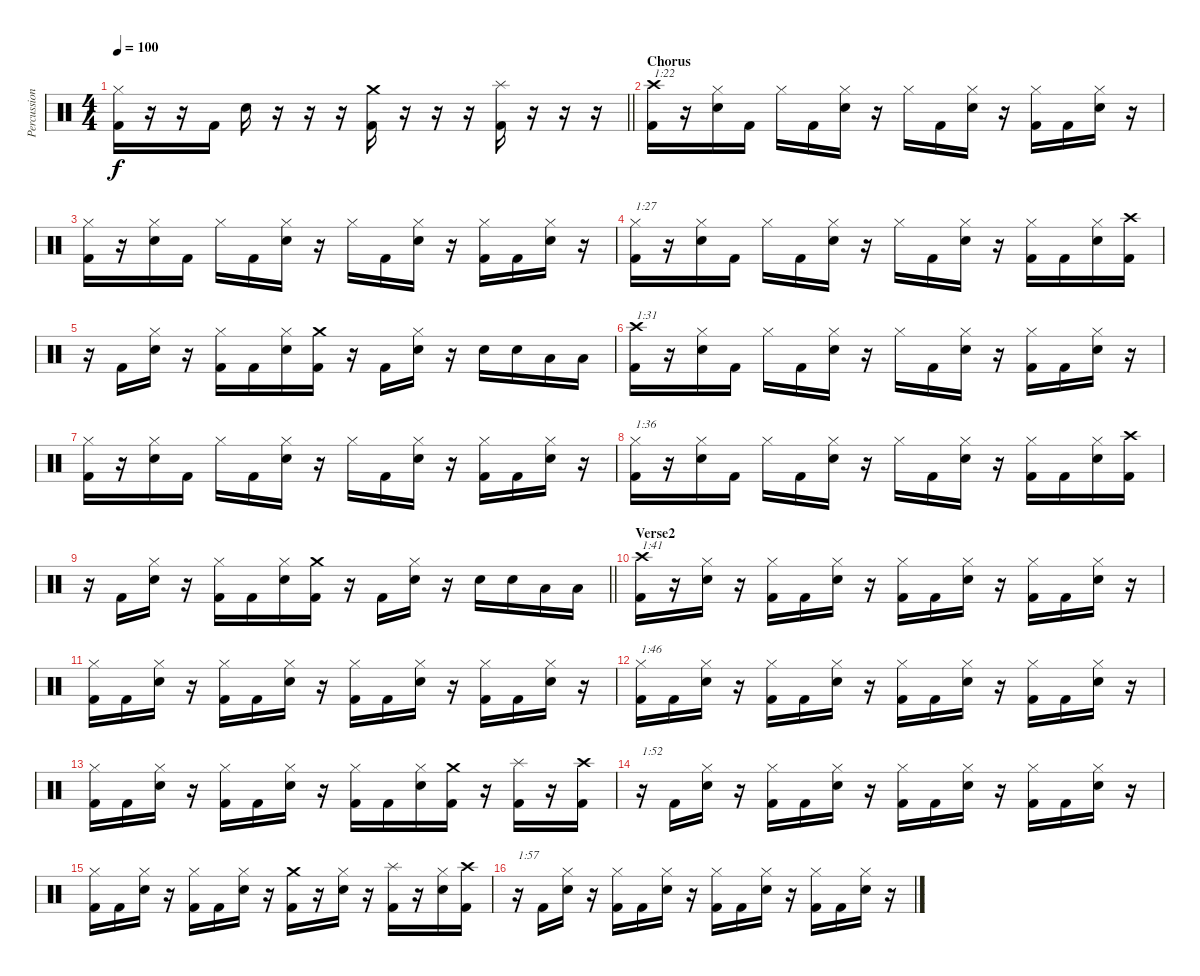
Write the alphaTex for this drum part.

\track ("Percussion" "Percussion") {instrument percussion}
\staff {score}
\articulation defaults
\ts (4 4)
\tempo 100
\clef neutral
\barLineRight lightlight
\ks c
("Hi-Hat (closed)" "Kick (hit) 2").16{dy f} r.16 r.16 "Kick (hit) 2".16 "Electric Snare (hit)".16 r.16 r.16 r.16 ("Crash medium (hit)" "Kick (hit) 2").16 r.16 r.16 r.16 ("Splash (hit)" "Kick (hit) 2").16 r.16 r.16 r.16 |
\section ("" "Chorus")
("Crash high (hit)" "Kick (hit) 2").16{txt "1:22"} r.16 ("Hi-Hat (closed)" "Electric Snare (hit)").16 "Kick (hit) 2".16 "Hi-Hat (closed)".16 "Kick (hit) 2".16 ("Hi-Hat (closed)" "Electric Snare (hit)").16 r.16 "Hi-Hat (closed)".16 "Kick (hit) 2".16 ("Hi-Hat (closed)" "Electric Snare (hit)").16 r.16 ("Hi-Hat (closed)" "Kick (hit) 2").16 "Kick (hit) 2".16 ("Hi-Hat (closed)" "Electric Snare (hit)").16 r.16 |
("Hi-Hat (closed)" "Kick (hit) 2").16 r.16 ("Hi-Hat (closed)" "Electric Snare (hit)").16 "Kick (hit) 2".16 "Hi-Hat (closed)".16 "Kick (hit) 2".16 ("Hi-Hat (closed)" "Electric Snare (hit)").16 r.16 "Hi-Hat (closed)".16 "Kick (hit) 2".16 ("Hi-Hat (closed)" "Electric Snare (hit)").16 r.16 ("Hi-Hat (closed)" "Kick (hit) 2").16 "Kick (hit) 2".16 ("Hi-Hat (closed)" "Electric Snare (hit)").16 r.16 |
("Hi-Hat (closed)" "Kick (hit) 2").16{txt "1:27"} r.16 ("Hi-Hat (closed)" "Electric Snare (hit)").16 "Kick (hit) 2".16 "Hi-Hat (closed)".16 "Kick (hit) 2".16 ("Hi-Hat (closed)" "Electric Snare (hit)").16 r.16 "Hi-Hat (closed)".16 "Kick (hit) 2".16 ("Hi-Hat (closed)" "Electric Snare (hit)").16 r.16 ("Hi-Hat (closed)" "Kick (hit) 2").16 "Kick (hit) 2".16 ("Hi-Hat (closed)" "Electric Snare (hit)").16 ("Crash high (hit)" "Kick (hit) 2").16 |
r.16 "Kick (hit) 2".16 ("Hi-Hat (closed)" "Electric Snare (hit)").16 r.16 ("Hi-Hat (closed)" "Kick (hit) 2").16 "Kick (hit) 2".16 ("Hi-Hat (closed)" "Electric Snare (hit)").16 ("Crash medium (hit)" "Kick (hit) 2").16 r.16 "Kick (hit) 2".16 ("Hi-Hat (closed)" "Electric Snare (hit)").16 r.16 "Electric Snare (hit)".16 "Electric Snare (hit)".16 "Low Tom (hit)".16 "Low Tom (hit)".16 |
("Crash high (hit)" "Kick (hit) 2").16{txt "1:31"} r.16 ("Hi-Hat (closed)" "Electric Snare (hit)").16 "Kick (hit) 2".16 "Hi-Hat (closed)".16 "Kick (hit) 2".16 ("Hi-Hat (closed)" "Electric Snare (hit)").16 r.16 "Hi-Hat (closed)".16 "Kick (hit) 2".16 ("Hi-Hat (closed)" "Electric Snare (hit)").16 r.16 ("Hi-Hat (closed)" "Kick (hit) 2").16 "Kick (hit) 2".16 ("Hi-Hat (closed)" "Electric Snare (hit)").16 r.16 |
("Hi-Hat (closed)" "Kick (hit) 2").16 r.16 ("Hi-Hat (closed)" "Electric Snare (hit)").16 "Kick (hit) 2".16 "Hi-Hat (closed)".16 "Kick (hit) 2".16 ("Hi-Hat (closed)" "Electric Snare (hit)").16 r.16 "Hi-Hat (closed)".16 "Kick (hit) 2".16 ("Hi-Hat (closed)" "Electric Snare (hit)").16 r.16 ("Hi-Hat (closed)" "Kick (hit) 2").16 "Kick (hit) 2".16 ("Hi-Hat (closed)" "Electric Snare (hit)").16 r.16 |
("Hi-Hat (closed)" "Kick (hit) 2").16{txt "1:36"} r.16 ("Hi-Hat (closed)" "Electric Snare (hit)").16 "Kick (hit) 2".16 "Hi-Hat (closed)".16 "Kick (hit) 2".16 ("Hi-Hat (closed)" "Electric Snare (hit)").16 r.16 "Hi-Hat (closed)".16 "Kick (hit) 2".16 ("Hi-Hat (closed)" "Electric Snare (hit)").16 r.16 ("Hi-Hat (closed)" "Kick (hit) 2").16 "Kick (hit) 2".16 ("Hi-Hat (closed)" "Electric Snare (hit)").16 ("Crash high (hit)" "Kick (hit) 2").16 |
\barLineRight lightlight
r.16 "Kick (hit) 2".16 ("Hi-Hat (closed)" "Electric Snare (hit)").16 r.16 ("Hi-Hat (closed)" "Kick (hit) 2").16 "Kick (hit) 2".16 ("Hi-Hat (closed)" "Electric Snare (hit)").16 ("Crash medium (hit)" "Kick (hit) 2").16 r.16 "Kick (hit) 2".16 ("Hi-Hat (closed)" "Electric Snare (hit)").16 r.16 "Electric Snare (hit)".16 "Electric Snare (hit)".16 "Low Tom (hit)".16 "Low Tom (hit)".16 |
\section ("" "Verse2")
("Crash high (hit)" "Kick (hit) 2").16{txt "1:41"} r.16 ("Hi-Hat (closed)" "Electric Snare (hit)").16 r.16 ("Hi-Hat (closed)" "Kick (hit) 2").16 "Kick (hit) 2".16 ("Hi-Hat (closed)" "Electric Snare (hit)").16 r.16 ("Hi-Hat (closed)" "Kick (hit) 2").16 "Kick (hit) 2".16 ("Hi-Hat (closed)" "Electric Snare (hit)").16 r.16 ("Hi-Hat (closed)" "Kick (hit) 2").16 "Kick (hit) 2".16 ("Hi-Hat (closed)" "Electric Snare (hit)").16 r.16 |
("Hi-Hat (closed)" "Kick (hit) 2").16 "Kick (hit) 2".16 ("Hi-Hat (closed)" "Electric Snare (hit)").16 r.16 ("Hi-Hat (closed)" "Kick (hit) 2").16 "Kick (hit) 2".16 ("Hi-Hat (closed)" "Electric Snare (hit)").16 r.16 ("Hi-Hat (closed)" "Kick (hit) 2").16 "Kick (hit) 2".16 ("Hi-Hat (closed)" "Electric Snare (hit)").16 r.16 ("Hi-Hat (closed)" "Kick (hit) 2").16 "Kick (hit) 2".16 ("Hi-Hat (closed)" "Electric Snare (hit)").16 r.16 |
("Hi-Hat (closed)" "Kick (hit) 2").16{txt "1:46"} "Kick (hit) 2".16 ("Hi-Hat (closed)" "Electric Snare (hit)").16 r.16 ("Hi-Hat (closed)" "Kick (hit) 2").16 "Kick (hit) 2".16 ("Hi-Hat (closed)" "Electric Snare (hit)").16 r.16 ("Hi-Hat (closed)" "Kick (hit) 2").16 "Kick (hit) 2".16 ("Hi-Hat (closed)" "Electric Snare (hit)").16 r.16 ("Hi-Hat (closed)" "Kick (hit) 2").16 "Kick (hit) 2".16 ("Hi-Hat (closed)" "Electric Snare (hit)").16 r.16 |
("Hi-Hat (closed)" "Kick (hit) 2").16 "Kick (hit) 2".16 ("Hi-Hat (closed)" "Electric Snare (hit)").16 r.16 ("Hi-Hat (closed)" "Kick (hit) 2").16 "Kick (hit) 2".16 ("Hi-Hat (closed)" "Electric Snare (hit)").16 r.16 ("Hi-Hat (closed)" "Kick (hit) 2").16 "Kick (hit) 2".16 ("Hi-Hat (closed)" "Electric Snare (hit)").16 ("Crash medium (hit)" "Kick (hit) 2").16 r.16 ("Splash (hit)" "Kick (hit) 2").16 r.16 ("Crash high (hit)" "Kick (hit) 2").16 |
r.16{txt "1:52"} "Kick (hit) 2".16 ("Hi-Hat (closed)" "Electric Snare (hit)").16 r.16 ("Hi-Hat (closed)" "Kick (hit) 2").16 "Kick (hit) 2".16 ("Hi-Hat (closed)" "Electric Snare (hit)").16 r.16 ("Hi-Hat (closed)" "Kick (hit) 2").16 "Kick (hit) 2".16 ("Hi-Hat (closed)" "Electric Snare (hit)").16 r.16 ("Hi-Hat (closed)" "Kick (hit) 2").16 "Kick (hit) 2".16 ("Hi-Hat (closed)" "Electric Snare (hit)").16 r.16 |
("Hi-Hat (closed)" "Kick (hit) 2").16 "Kick (hit) 2".16 ("Hi-Hat (closed)" "Electric Snare (hit)").16 r.16 ("Hi-Hat (closed)" "Kick (hit) 2").16 "Kick (hit) 2".16 ("Hi-Hat (closed)" "Electric Snare (hit)").16 r.16 ("Crash medium (hit)" "Kick (hit) 2").16 r.16 ("Hi-Hat (closed)" "Electric Snare (hit)").16 r.16 ("Splash (hit)" "Kick (hit) 2").16 r.16 ("Hi-Hat (closed)" "Electric Snare (hit)").16 ("Crash high (hit)" "Kick (hit) 2").16 |
r.16{txt "1:57"} "Kick (hit) 2".16 ("Hi-Hat (closed)" "Electric Snare (hit)").16 r.16 ("Hi-Hat (closed)" "Kick (hit) 2").16 "Kick (hit) 2".16 ("Hi-Hat (closed)" "Electric Snare (hit)").16 r.16 ("Hi-Hat (closed)" "Kick (hit) 2").16 "Kick (hit) 2".16 ("Hi-Hat (closed)" "Electric Snare (hit)").16 r.16 ("Hi-Hat (closed)" "Kick (hit) 2").16 "Kick (hit) 2".16 ("Hi-Hat (closed)" "Electric Snare (hit)").16 r.16
